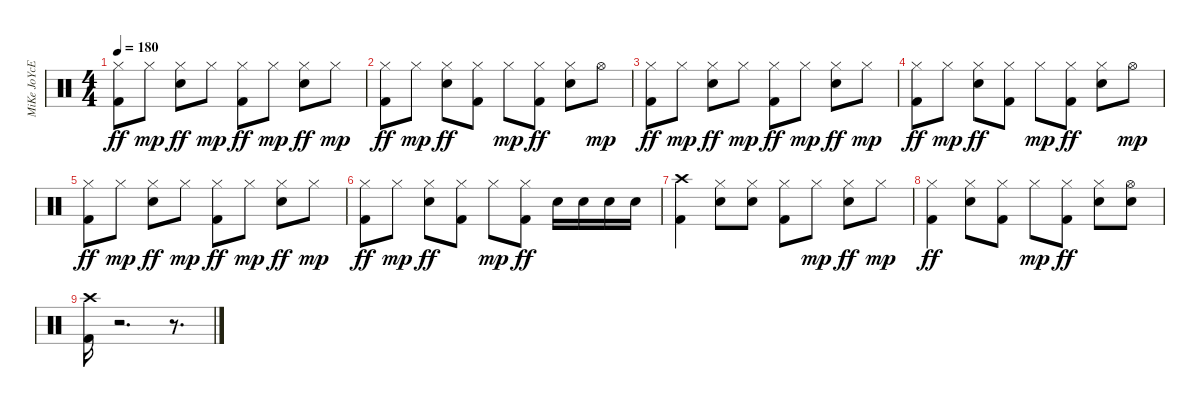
\track ("MiKe JoYcE" "MiKe JoYcE") {instrument percussion}
\staff {score}
\articulation defaults
\ts (4 4)
\tempo 180
\clef neutral
\ks c
("Hi-Hat (closed)" "Kick (hit) 2").8{dy ff} "Hi-Hat (closed)".8{dy mp} ("Hi-Hat (closed)" "Electric Snare (hit)").8{dy ff} "Hi-Hat (closed)".8{dy mp} ("Hi-Hat (closed)" "Kick (hit) 2").8{dy ff} "Hi-Hat (closed)".8{dy mp} ("Hi-Hat (closed)" "Electric Snare (hit)").8{dy ff} "Hi-Hat (closed)".8{dy mp} |
("Hi-Hat (closed)" "Kick (hit) 2").8{dy ff} "Hi-Hat (closed)".8{dy mp} ("Hi-Hat (closed)" "Electric Snare (hit)").8{dy ff} ("Hi-Hat (closed)" "Kick (hit) 2").8 "Hi-Hat (closed)".8{dy mp} ("Hi-Hat (closed)" "Kick (hit) 2").8{dy ff} ("Hi-Hat (closed)" "Electric Snare (hit)").8 "Hi-Hat (open)".8{dy mp} |
("Hi-Hat (closed)" "Kick (hit) 2").8{dy ff} "Hi-Hat (closed)".8{dy mp} ("Hi-Hat (closed)" "Electric Snare (hit)").8{dy ff} "Hi-Hat (closed)".8{dy mp} ("Hi-Hat (closed)" "Kick (hit) 2").8{dy ff} "Hi-Hat (closed)".8{dy mp} ("Hi-Hat (closed)" "Electric Snare (hit)").8{dy ff} "Hi-Hat (closed)".8{dy mp} |
("Hi-Hat (closed)" "Kick (hit) 2").8{dy ff} "Hi-Hat (closed)".8{dy mp} ("Hi-Hat (closed)" "Electric Snare (hit)").8{dy ff} ("Hi-Hat (closed)" "Kick (hit) 2").8 "Hi-Hat (closed)".8{dy mp} ("Hi-Hat (closed)" "Kick (hit) 2").8{dy ff} ("Hi-Hat (closed)" "Electric Snare (hit)").8 "Hi-Hat (open)".8{dy mp} |
("Hi-Hat (closed)" "Kick (hit) 2").8{dy ff} "Hi-Hat (closed)".8{dy mp} ("Hi-Hat (closed)" "Electric Snare (hit)").8{dy ff} "Hi-Hat (closed)".8{dy mp} ("Hi-Hat (closed)" "Kick (hit) 2").8{dy ff} "Hi-Hat (closed)".8{dy mp} ("Hi-Hat (closed)" "Electric Snare (hit)").8{dy ff} "Hi-Hat (closed)".8{dy mp} |
("Hi-Hat (closed)" "Kick (hit) 2").8{dy ff} "Hi-Hat (closed)".8{dy mp} ("Hi-Hat (closed)" "Electric Snare (hit)").8{dy ff} ("Hi-Hat (closed)" "Kick (hit) 2").8 "Hi-Hat (closed)".8{dy mp} ("Hi-Hat (closed)" "Kick (hit) 2").8{dy ff} "Electric Snare (hit)".16 "Electric Snare (hit)".16 "Electric Snare (hit)".16 "Electric Snare (hit)".16 |
("Crash high (hit)" "Kick (hit) 2").4 ("Hi-Hat (closed)" "Electric Snare (hit)").8 ("Hi-Hat (closed)" "Electric Snare (hit)").8 ("Hi-Hat (closed)" "Kick (hit) 2").8 "Hi-Hat (closed)".8{dy mp} ("Hi-Hat (closed)" "Electric Snare (hit)").8{dy ff} "Hi-Hat (closed)".8{dy mp} |
("Hi-Hat (closed)" "Kick (hit) 2").4{dy ff} ("Hi-Hat (closed)" "Electric Snare (hit)").8 ("Hi-Hat (closed)" "Kick (hit) 2").8 "Hi-Hat (closed)".8{dy mp} ("Hi-Hat (closed)" "Kick (hit) 2").8{dy ff} ("Hi-Hat (closed)" "Electric Snare (hit)").8 ("Hi-Hat (open)" "Electric Snare (hit)").8 |
("Crash high (hit)" "Kick (hit) 2").16 r.2{d} r.8{d}
